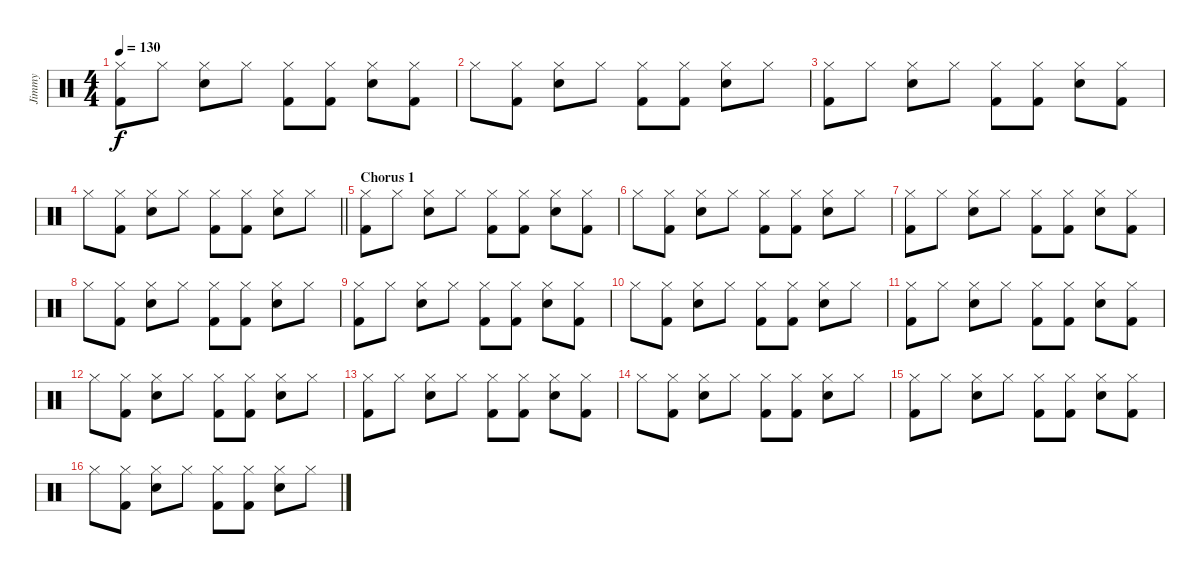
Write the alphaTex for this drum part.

\track ("Jimmy" "Jimmy") {instrument percussion}
\staff {score}
\articulation defaults
\ts (4 4)
\tempo 130
\clef neutral
\ks c
("Hi-Hat (closed)" "Kick (hit) 2").8{dy f} "Hi-Hat (closed)".8 ("Hi-Hat (closed)" "Electric Snare (hit)").8 "Hi-Hat (closed)".8 ("Hi-Hat (closed)" "Kick (hit) 2").8 ("Hi-Hat (closed)" "Kick (hit) 2").8 ("Hi-Hat (closed)" "Electric Snare (hit)").8 ("Hi-Hat (closed)" "Kick (hit) 2").8 |
"Hi-Hat (closed)".8 ("Hi-Hat (closed)" "Kick (hit) 2").8 ("Hi-Hat (closed)" "Electric Snare (hit)").8 "Hi-Hat (closed)".8 ("Hi-Hat (closed)" "Kick (hit) 2").8 ("Hi-Hat (closed)" "Kick (hit) 2").8 ("Hi-Hat (closed)" "Electric Snare (hit)").8 "Hi-Hat (closed)".8 |
("Hi-Hat (closed)" "Kick (hit) 2").8 "Hi-Hat (closed)".8 ("Hi-Hat (closed)" "Electric Snare (hit)").8 "Hi-Hat (closed)".8 ("Hi-Hat (closed)" "Kick (hit) 2").8 ("Hi-Hat (closed)" "Kick (hit) 2").8 ("Hi-Hat (closed)" "Electric Snare (hit)").8 ("Hi-Hat (closed)" "Kick (hit) 2").8 |
\barLineRight lightlight "Hi-Hat (closed)".8
("Hi-Hat (closed)" "Kick (hit) 2").8 ("Hi-Hat (closed)" "Electric Snare (hit)").8 "Hi-Hat (closed)".8 ("Hi-Hat (closed)" "Kick (hit) 2").8 ("Hi-Hat (closed)" "Kick (hit) 2").8 ("Hi-Hat (closed)" "Electric Snare (hit)").8 "Hi-Hat (closed)".8 |
\section ("" "Chorus 1")
("Hi-Hat (closed)" "Kick (hit) 2").8 "Hi-Hat (closed)".8 ("Hi-Hat (closed)" "Electric Snare (hit)").8 "Hi-Hat (closed)".8 ("Hi-Hat (closed)" "Kick (hit) 2").8 ("Hi-Hat (closed)" "Kick (hit) 2").8 ("Hi-Hat (closed)" "Electric Snare (hit)").8 ("Hi-Hat (closed)" "Kick (hit) 2").8 |
"Hi-Hat (closed)".8 ("Hi-Hat (closed)" "Kick (hit) 2").8 ("Hi-Hat (closed)" "Electric Snare (hit)").8 "Hi-Hat (closed)".8 ("Hi-Hat (closed)" "Kick (hit) 2").8 ("Hi-Hat (closed)" "Kick (hit) 2").8 ("Hi-Hat (closed)" "Electric Snare (hit)").8 "Hi-Hat (closed)".8 |
("Hi-Hat (closed)" "Kick (hit) 2").8 "Hi-Hat (closed)".8 ("Hi-Hat (closed)" "Electric Snare (hit)").8 "Hi-Hat (closed)".8 ("Hi-Hat (closed)" "Kick (hit) 2").8 ("Hi-Hat (closed)" "Kick (hit) 2").8 ("Hi-Hat (closed)" "Electric Snare (hit)").8 ("Hi-Hat (closed)" "Kick (hit) 2").8 |
"Hi-Hat (closed)".8 ("Hi-Hat (closed)" "Kick (hit) 2").8 ("Hi-Hat (closed)" "Electric Snare (hit)").8 "Hi-Hat (closed)".8 ("Hi-Hat (closed)" "Kick (hit) 2").8 ("Hi-Hat (closed)" "Kick (hit) 2").8 ("Hi-Hat (closed)" "Electric Snare (hit)").8 "Hi-Hat (closed)".8 |
("Hi-Hat (closed)" "Kick (hit) 2").8 "Hi-Hat (closed)".8 ("Hi-Hat (closed)" "Electric Snare (hit)").8 "Hi-Hat (closed)".8 ("Hi-Hat (closed)" "Kick (hit) 2").8 ("Hi-Hat (closed)" "Kick (hit) 2").8 ("Hi-Hat (closed)" "Electric Snare (hit)").8 ("Hi-Hat (closed)" "Kick (hit) 2").8 |
"Hi-Hat (closed)".8 ("Hi-Hat (closed)" "Kick (hit) 2").8 ("Hi-Hat (closed)" "Electric Snare (hit)").8 "Hi-Hat (closed)".8 ("Hi-Hat (closed)" "Kick (hit) 2").8 ("Hi-Hat (closed)" "Kick (hit) 2").8 ("Hi-Hat (closed)" "Electric Snare (hit)").8 "Hi-Hat (closed)".8 |
("Hi-Hat (closed)" "Kick (hit) 2").8 "Hi-Hat (closed)".8 ("Hi-Hat (closed)" "Electric Snare (hit)").8 "Hi-Hat (closed)".8 ("Hi-Hat (closed)" "Kick (hit) 2").8 ("Hi-Hat (closed)" "Kick (hit) 2").8 ("Hi-Hat (closed)" "Electric Snare (hit)").8 ("Hi-Hat (closed)" "Kick (hit) 2").8 |
"Hi-Hat (closed)".8 ("Hi-Hat (closed)" "Kick (hit) 2").8 ("Hi-Hat (closed)" "Electric Snare (hit)").8 "Hi-Hat (closed)".8 ("Hi-Hat (closed)" "Kick (hit) 2").8 ("Hi-Hat (closed)" "Kick (hit) 2").8 ("Hi-Hat (closed)" "Electric Snare (hit)").8 "Hi-Hat (closed)".8 |
("Hi-Hat (closed)" "Kick (hit) 2").8 "Hi-Hat (closed)".8 ("Hi-Hat (closed)" "Electric Snare (hit)").8 "Hi-Hat (closed)".8 ("Hi-Hat (closed)" "Kick (hit) 2").8 ("Hi-Hat (closed)" "Kick (hit) 2").8 ("Hi-Hat (closed)" "Electric Snare (hit)").8 ("Hi-Hat (closed)" "Kick (hit) 2").8 |
"Hi-Hat (closed)".8 ("Hi-Hat (closed)" "Kick (hit) 2").8 ("Hi-Hat (closed)" "Electric Snare (hit)").8 "Hi-Hat (closed)".8 ("Hi-Hat (closed)" "Kick (hit) 2").8 ("Hi-Hat (closed)" "Kick (hit) 2").8 ("Hi-Hat (closed)" "Electric Snare (hit)").8 "Hi-Hat (closed)".8 |
("Hi-Hat (closed)" "Kick (hit) 2").8 "Hi-Hat (closed)".8 ("Hi-Hat (closed)" "Electric Snare (hit)").8 "Hi-Hat (closed)".8 ("Hi-Hat (closed)" "Kick (hit) 2").8 ("Hi-Hat (closed)" "Kick (hit) 2").8 ("Hi-Hat (closed)" "Electric Snare (hit)").8 ("Hi-Hat (closed)" "Kick (hit) 2").8 |
"Hi-Hat (closed)".8 ("Hi-Hat (closed)" "Kick (hit) 2").8 ("Hi-Hat (closed)" "Electric Snare (hit)").8 "Hi-Hat (closed)".8 ("Hi-Hat (closed)" "Kick (hit) 2").8 ("Hi-Hat (closed)" "Kick (hit) 2").8 ("Hi-Hat (closed)" "Electric Snare (hit)").8 "Hi-Hat (closed)".8
